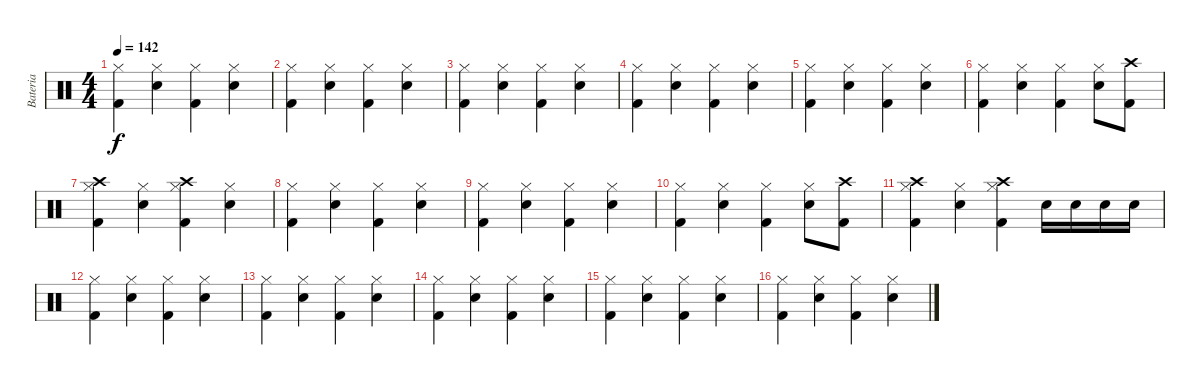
\track ("Bateria" "Bateria") {instrument percussion}
\staff {score}
\articulation defaults
\ts (4 4)
\tempo 142
\clef neutral
\ks c
("Hi-Hat (closed)" "Kick (hit) 2").4{dy f} ("Hi-Hat (closed)" "Electric Snare (hit)").4 ("Hi-Hat (closed)" "Kick (hit) 2").4 ("Hi-Hat (closed)" "Electric Snare (hit)").4 |
("Hi-Hat (closed)" "Kick (hit) 2").4 ("Hi-Hat (closed)" "Electric Snare (hit)").4 ("Hi-Hat (closed)" "Kick (hit) 2").4 ("Hi-Hat (closed)" "Electric Snare (hit)").4 |
("Hi-Hat (closed)" "Kick (hit) 2").4 ("Hi-Hat (closed)" "Electric Snare (hit)").4 ("Hi-Hat (closed)" "Kick (hit) 2").4 ("Hi-Hat (closed)" "Electric Snare (hit)").4 |
("Hi-Hat (closed)" "Kick (hit) 2").4 ("Hi-Hat (closed)" "Electric Snare (hit)").4 ("Hi-Hat (closed)" "Kick (hit) 2").4 ("Hi-Hat (closed)" "Electric Snare (hit)").4 |
("Hi-Hat (closed)" "Kick (hit) 2").4 ("Hi-Hat (closed)" "Electric Snare (hit)").4 ("Hi-Hat (closed)" "Kick (hit) 2").4 ("Hi-Hat (closed)" "Electric Snare (hit)").4 |
("Hi-Hat (closed)" "Kick (hit) 2").4 ("Hi-Hat (closed)" "Electric Snare (hit)").4 ("Hi-Hat (closed)" "Kick (hit) 2").4 ("Hi-Hat (closed)" "Electric Snare (hit)").8 ("Crash high (hit)" "Kick (hit) 2").8 |
("Crash high (hit)" "Hi-Hat (closed)" "Kick (hit) 2").4 ("Hi-Hat (closed)" "Electric Snare (hit)").4 ("Crash high (hit)" "Hi-Hat (closed)" "Kick (hit) 2").4 ("Hi-Hat (closed)" "Electric Snare (hit)").4 |
("Hi-Hat (closed)" "Kick (hit) 2").4 ("Hi-Hat (closed)" "Electric Snare (hit)").4 ("Hi-Hat (closed)" "Kick (hit) 2").4 ("Hi-Hat (closed)" "Electric Snare (hit)").4 |
("Hi-Hat (closed)" "Kick (hit) 2").4 ("Hi-Hat (closed)" "Electric Snare (hit)").4 ("Hi-Hat (closed)" "Kick (hit) 2").4 ("Hi-Hat (closed)" "Electric Snare (hit)").4 |
("Hi-Hat (closed)" "Kick (hit) 2").4 ("Hi-Hat (closed)" "Electric Snare (hit)").4 ("Hi-Hat (closed)" "Kick (hit) 2").4 ("Hi-Hat (closed)" "Electric Snare (hit)").8 ("Crash high (hit)" "Kick (hit) 2").8 |
("Crash high (hit)" "Hi-Hat (closed)" "Kick (hit) 2").4 ("Hi-Hat (closed)" "Electric Snare (hit)").4 ("Crash high (hit)" "Hi-Hat (closed)" "Kick (hit) 2").4 "Electric Snare (hit)".16 "Electric Snare (hit)".16 "Electric Snare (hit)".16 "Electric Snare (hit)".16 |
("Hi-Hat (closed)" "Kick (hit) 2").4 ("Hi-Hat (closed)" "Electric Snare (hit)").4 ("Hi-Hat (closed)" "Kick (hit) 2").4 ("Hi-Hat (closed)" "Electric Snare (hit)").4 |
("Hi-Hat (closed)" "Kick (hit) 2").4 ("Hi-Hat (closed)" "Electric Snare (hit)").4 ("Hi-Hat (closed)" "Kick (hit) 2").4 ("Hi-Hat (closed)" "Electric Snare (hit)").4 |
("Hi-Hat (closed)" "Kick (hit) 2").4 ("Hi-Hat (closed)" "Electric Snare (hit)").4 ("Hi-Hat (closed)" "Kick (hit) 2").4 ("Hi-Hat (closed)" "Electric Snare (hit)").4 |
("Hi-Hat (closed)" "Kick (hit) 2").4 ("Hi-Hat (closed)" "Electric Snare (hit)").4 ("Hi-Hat (closed)" "Kick (hit) 2").4 ("Hi-Hat (closed)" "Electric Snare (hit)").4 |
("Hi-Hat (closed)" "Kick (hit) 2").4 ("Hi-Hat (closed)" "Electric Snare (hit)").4 ("Hi-Hat (closed)" "Kick (hit) 2").4 ("Hi-Hat (closed)" "Electric Snare (hit)").4
